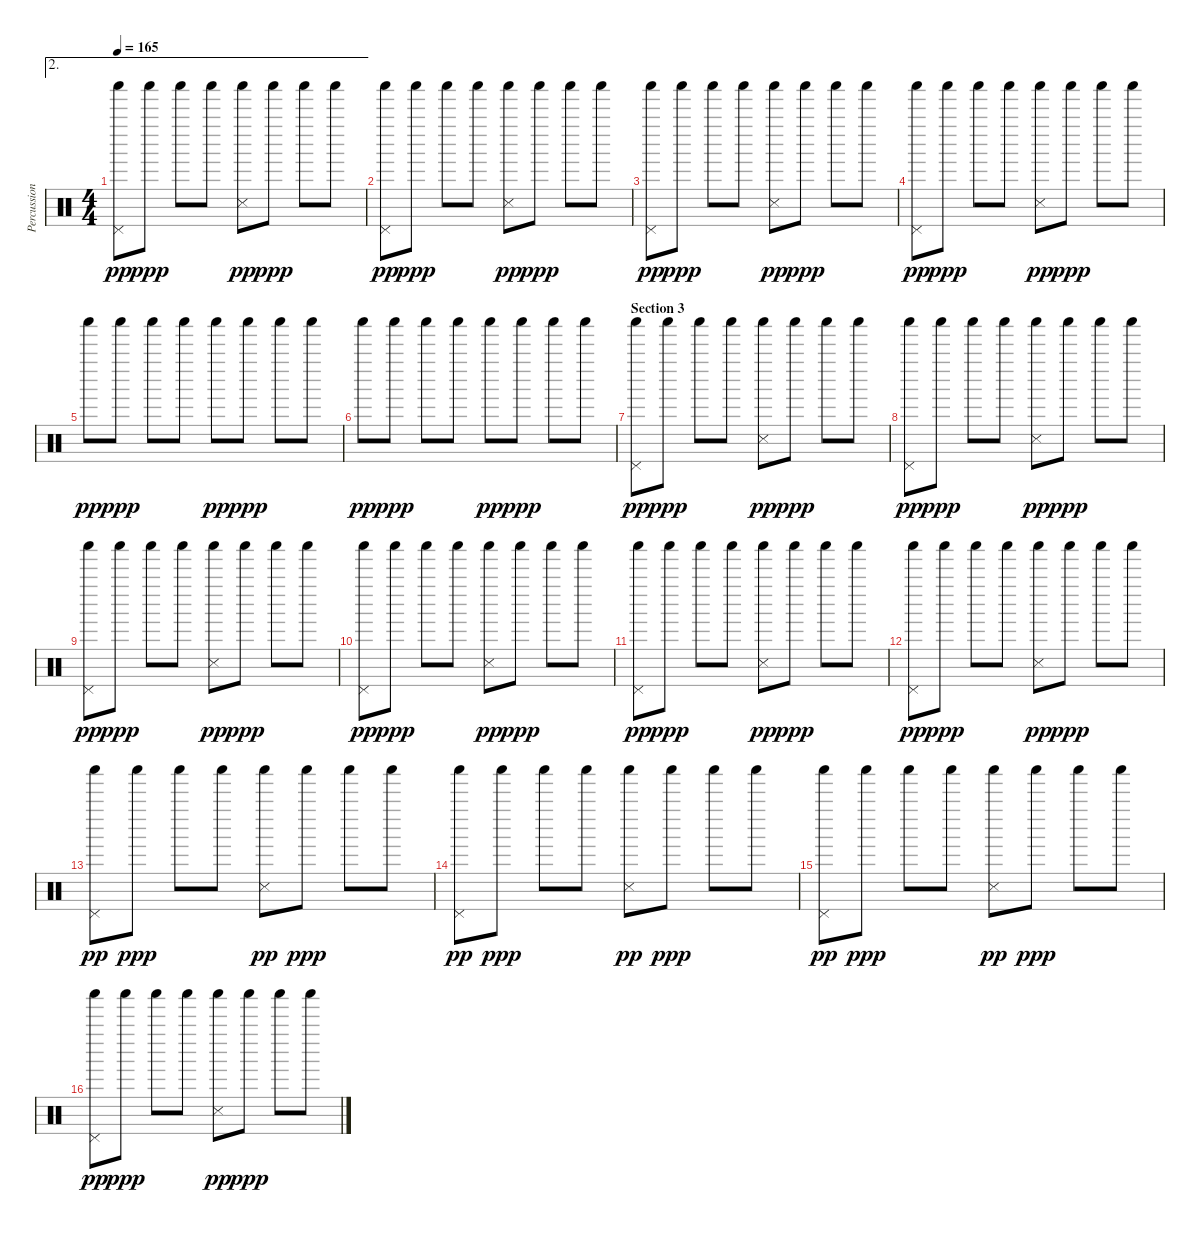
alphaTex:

\track ("Percussion" "Percussion") {instrument percussion}
\staff {score}
\articulation defaults
\ae 2
\ts (4 4)
\tempo 165
\clef neutral
\ks c
("Pedal Hi-Hat (hit)" "Shaker (hit)").8{dy pp} "Shaker (hit)".8{dy ppp} "Shaker (hit)".8 "Shaker (hit)".8 ("Snare (side stick) 3" "Shaker (hit)").8{dy pp} "Shaker (hit)".8{dy ppp} "Shaker (hit)".8 "Shaker (hit)".8 |
("Pedal Hi-Hat (hit)" "Shaker (hit)").8{dy pp} "Shaker (hit)".8{dy ppp} "Shaker (hit)".8 "Shaker (hit)".8 ("Snare (side stick) 3" "Shaker (hit)").8{dy pp} "Shaker (hit)".8{dy ppp} "Shaker (hit)".8 "Shaker (hit)".8 |
("Pedal Hi-Hat (hit)" "Shaker (hit)").8{dy pp} "Shaker (hit)".8{dy ppp} "Shaker (hit)".8 "Shaker (hit)".8 ("Snare (side stick) 3" "Shaker (hit)").8{dy pp} "Shaker (hit)".8{dy ppp} "Shaker (hit)".8 "Shaker (hit)".8 |
("Pedal Hi-Hat (hit)" "Shaker (hit)").8{dy pp} "Shaker (hit)".8{dy ppp} "Shaker (hit)".8 "Shaker (hit)".8 ("Snare (side stick) 3" "Shaker (hit)").8{dy pp} "Shaker (hit)".8{dy ppp} "Shaker (hit)".8 "Shaker (hit)".8 |
"Shaker (hit)".8{dy pp} "Shaker (hit)".8{dy ppp} "Shaker (hit)".8 "Shaker (hit)".8 "Shaker (hit)".8{dy pp} "Shaker (hit)".8{dy ppp} "Shaker (hit)".8 "Shaker (hit)".8 |
"Shaker (hit)".8{dy pp} "Shaker (hit)".8{dy ppp} "Shaker (hit)".8 "Shaker (hit)".8 "Shaker (hit)".8{dy pp} "Shaker (hit)".8{dy ppp} "Shaker (hit)".8 "Shaker (hit)".8 |
\section ("" "Section 3")
("Pedal Hi-Hat (hit)" "Shaker (hit)").8{dy pp} "Shaker (hit)".8{dy ppp} "Shaker (hit)".8 "Shaker (hit)".8 ("Snare (side stick) 3" "Shaker (hit)").8{dy pp} "Shaker (hit)".8{dy ppp} "Shaker (hit)".8 "Shaker (hit)".8 |
("Pedal Hi-Hat (hit)" "Shaker (hit)").8{dy pp} "Shaker (hit)".8{dy ppp} "Shaker (hit)".8 "Shaker (hit)".8 ("Snare (side stick) 3" "Shaker (hit)").8{dy pp} "Shaker (hit)".8{dy ppp} "Shaker (hit)".8 "Shaker (hit)".8 |
("Pedal Hi-Hat (hit)" "Shaker (hit)").8{dy pp} "Shaker (hit)".8{dy ppp} "Shaker (hit)".8 "Shaker (hit)".8 ("Snare (side stick) 3" "Shaker (hit)").8{dy pp} "Shaker (hit)".8{dy ppp} "Shaker (hit)".8 "Shaker (hit)".8 |
("Pedal Hi-Hat (hit)" "Shaker (hit)").8{dy pp} "Shaker (hit)".8{dy ppp} "Shaker (hit)".8 "Shaker (hit)".8 ("Snare (side stick) 3" "Shaker (hit)").8{dy pp} "Shaker (hit)".8{dy ppp} "Shaker (hit)".8 "Shaker (hit)".8 |
("Pedal Hi-Hat (hit)" "Shaker (hit)").8{dy pp} "Shaker (hit)".8{dy ppp} "Shaker (hit)".8 "Shaker (hit)".8 ("Snare (side stick) 3" "Shaker (hit)").8{dy pp} "Shaker (hit)".8{dy ppp} "Shaker (hit)".8 "Shaker (hit)".8 |
("Pedal Hi-Hat (hit)" "Shaker (hit)").8{dy pp} "Shaker (hit)".8{dy ppp} "Shaker (hit)".8 "Shaker (hit)".8 ("Snare (side stick) 3" "Shaker (hit)").8{dy pp} "Shaker (hit)".8{dy ppp} "Shaker (hit)".8 "Shaker (hit)".8 |
("Pedal Hi-Hat (hit)" "Shaker (hit)").8{dy pp} "Shaker (hit)".8{dy ppp} "Shaker (hit)".8 "Shaker (hit)".8 ("Snare (side stick) 3" "Shaker (hit)").8{dy pp} "Shaker (hit)".8{dy ppp} "Shaker (hit)".8 "Shaker (hit)".8 |
("Pedal Hi-Hat (hit)" "Shaker (hit)").8{dy pp} "Shaker (hit)".8{dy ppp} "Shaker (hit)".8 "Shaker (hit)".8 ("Snare (side stick) 3" "Shaker (hit)").8{dy pp} "Shaker (hit)".8{dy ppp} "Shaker (hit)".8 "Shaker (hit)".8 |
("Pedal Hi-Hat (hit)" "Shaker (hit)").8{dy pp} "Shaker (hit)".8{dy ppp} "Shaker (hit)".8 "Shaker (hit)".8 ("Snare (side stick) 3" "Shaker (hit)").8{dy pp} "Shaker (hit)".8{dy ppp} "Shaker (hit)".8 "Shaker (hit)".8 |
("Pedal Hi-Hat (hit)" "Shaker (hit)").8{dy pp} "Shaker (hit)".8{dy ppp} "Shaker (hit)".8 "Shaker (hit)".8 ("Snare (side stick) 3" "Shaker (hit)").8{dy pp} "Shaker (hit)".8{dy ppp} "Shaker (hit)".8 "Shaker (hit)".8
